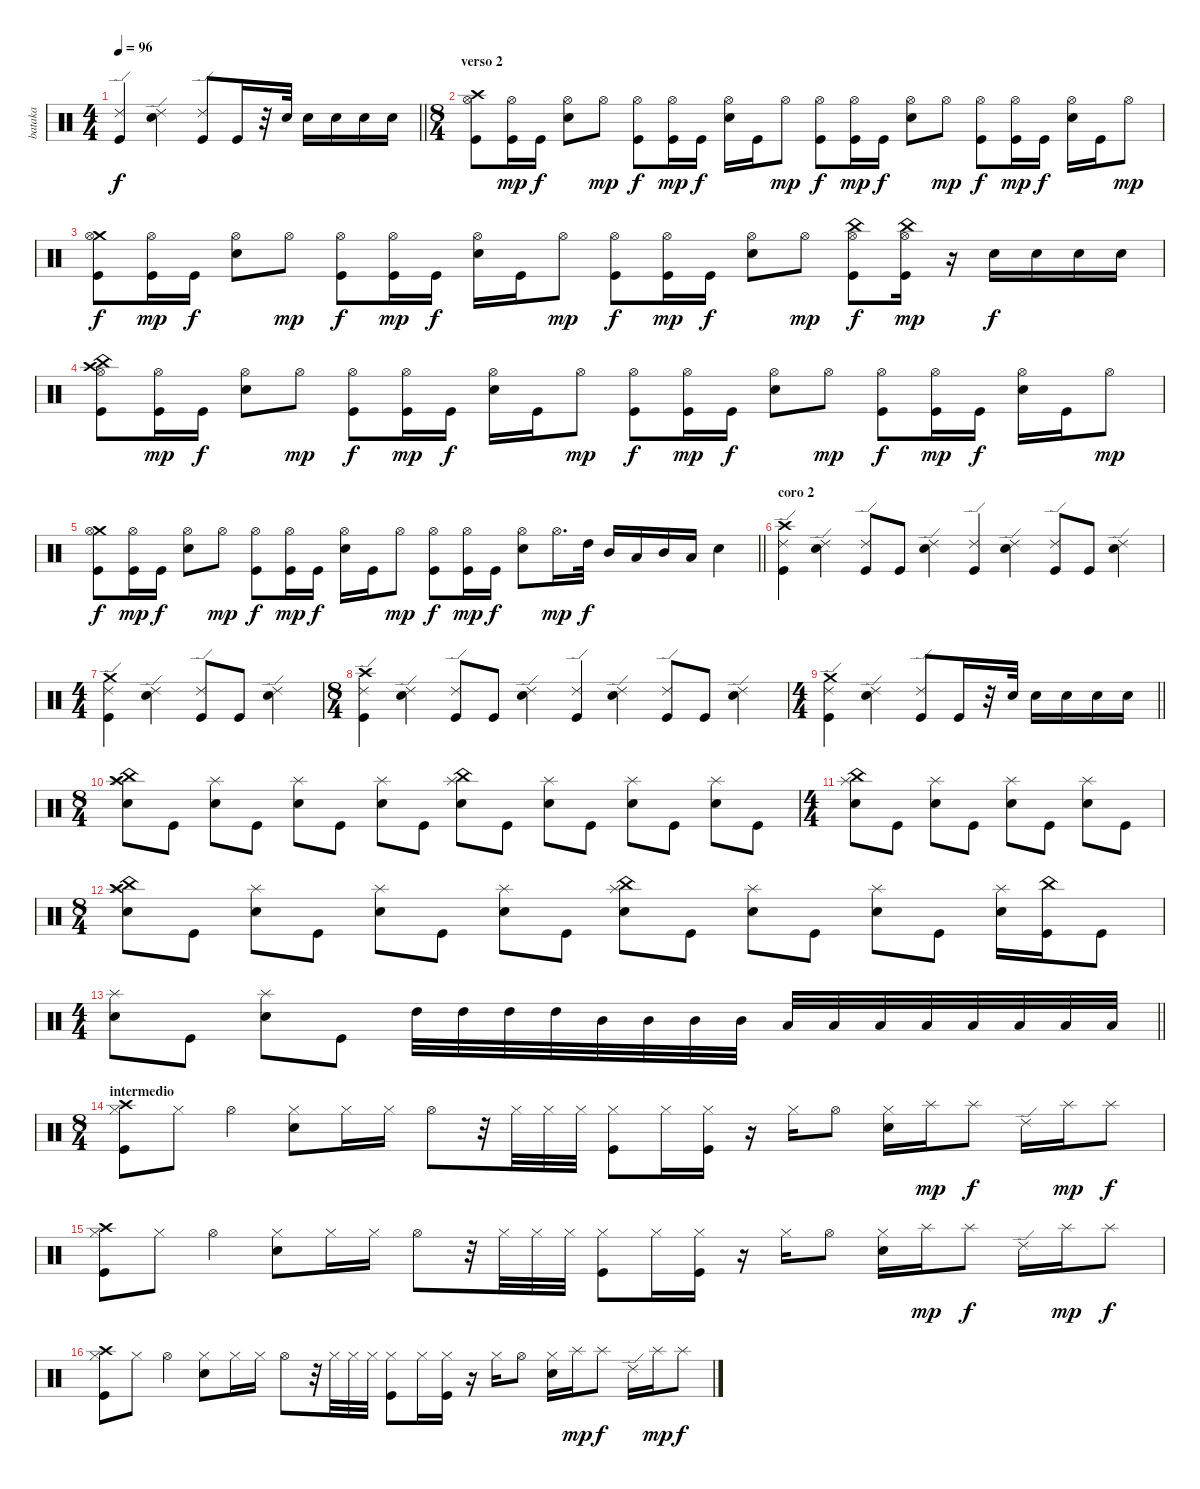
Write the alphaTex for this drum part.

\track ("bataka" "bataka") {instrument percussion}
\staff {score}
\articulation defaults
\ts (4 4)
\tempo 96
\clef neutral
\barLineRight lightlight
\ks c
("Ride (edge) 2" "Kick (hit)").4{dy f} ("Ride (edge) 2" "Snare (hit) 2").4 ("Ride (edge) 2" "Kick (hit)").8 "Kick (hit)".16 r.32 "Snare (hit) 2".32 "Snare (hit) 2".16 "Snare (hit) 2".16 "Snare (hit) 2".16 "Snare (hit) 2".16 |
\ts (8 4)
\section ("" "verso 2")
("Crash high (hit)" "Hi-Hat (open)" "Kick (hit)").8 ("Hi-Hat (open)" "Kick (hit)").16{dy mp} "Kick (hit)".16{dy f} ("Hi-Hat (open)" "Snare (hit) 2").8 "Hi-Hat (open)".8{dy mp} ("Hi-Hat (open)" "Kick (hit)").8{dy f} ("Hi-Hat (open)" "Kick (hit)").16{dy mp} "Kick (hit)".16{dy f} ("Hi-Hat (open)" "Snare (hit) 2").16 "Kick (hit)".16 "Hi-Hat (open)".8{dy mp} ("Hi-Hat (open)" "Kick (hit)").8{dy f} ("Hi-Hat (open)" "Kick (hit)").16{dy mp} "Kick (hit)".16{dy f} ("Hi-Hat (open)" "Snare (hit) 2").8 "Hi-Hat (open)".8{dy mp} ("Hi-Hat (open)" "Kick (hit)").8{dy f} ("Hi-Hat (open)" "Kick (hit)").16{dy mp} "Kick (hit)".16{dy f} ("Hi-Hat (open)" "Snare (hit) 2").16 "Kick (hit)".16 "Hi-Hat (open)".8{dy mp} |
("Crash medium (hit)" "Hi-Hat (open)" "Kick (hit)").8{dy f} ("Hi-Hat (open)" "Kick (hit)").16{dy mp} "Kick (hit)".16{dy f} ("Hi-Hat (open)" "Snare (hit) 2").8 "Hi-Hat (open)".8{dy mp} ("Hi-Hat (open)" "Kick (hit)").8{dy f} ("Hi-Hat (open)" "Kick (hit)").16{dy mp} "Kick (hit)".16{dy f} ("Hi-Hat (open)" "Snare (hit) 2").16 "Kick (hit)".16 "Hi-Hat (open)".8{dy mp} ("Hi-Hat (open)" "Kick (hit)").8{dy f} ("Hi-Hat (open)" "Kick (hit)").16{dy mp} "Kick (hit)".16{dy f} ("Hi-Hat (open)" "Snare (hit) 2").8 "Hi-Hat (open)".8{dy mp} ("China (hit)" "Hi-Hat (open)" "Kick (hit)").8{dy f} ("China (hit)" "Hi-Hat (open)" "Kick (hit)").16{dy mp} r.16 "Snare (hit) 2".16{dy f} "Snare (hit) 2".16 "Snare (hit) 2".16 "Snare (hit) 2".16 |
("Crash high (hit)" "China (hit)" "Hi-Hat (open)" "Kick (hit)").8 ("Hi-Hat (open)" "Kick (hit)").16{dy mp} "Kick (hit)".16{dy f} ("Hi-Hat (open)" "Snare (hit) 2").8 "Hi-Hat (open)".8{dy mp} ("Hi-Hat (open)" "Kick (hit)").8{dy f} ("Hi-Hat (open)" "Kick (hit)").16{dy mp} "Kick (hit)".16{dy f} ("Hi-Hat (open)" "Snare (hit) 2").16 "Kick (hit)".16 "Hi-Hat (open)".8{dy mp} ("Hi-Hat (open)" "Kick (hit)").8{dy f} ("Hi-Hat (open)" "Kick (hit)").16{dy mp} "Kick (hit)".16{dy f} ("Hi-Hat (open)" "Snare (hit) 2").8 "Hi-Hat (open)".8{dy mp} ("Hi-Hat (open)" "Kick (hit)").8{dy f} ("Hi-Hat (open)" "Kick (hit)").16{dy mp} "Kick (hit)".16{dy f} ("Hi-Hat (open)" "Snare (hit) 2").16 "Kick (hit)".16 "Hi-Hat (open)".8{dy mp} |
\barLineRight lightlight
("Crash medium (hit)" "Hi-Hat (open)" "Kick (hit)").8{dy f} ("Hi-Hat (open)" "Kick (hit)").16{dy mp} "Kick (hit)".16{dy f} ("Hi-Hat (open)" "Snare (hit) 2").8 "Hi-Hat (open)".8{dy mp} ("Hi-Hat (open)" "Kick (hit)").8{dy f} ("Hi-Hat (open)" "Kick (hit)").16{dy mp} "Kick (hit)".16{dy f} ("Hi-Hat (open)" "Snare (hit) 2").16 "Kick (hit)".16 "Hi-Hat (open)".8{dy mp} ("Hi-Hat (open)" "Kick (hit)").8{dy f} ("Hi-Hat (open)" "Kick (hit)").16{dy mp} "Kick (hit)".16{dy f} ("Hi-Hat (open)" "Snare (hit) 2").8 "Hi-Hat (open)".16{d dy mp} "High Tom (hit)".32{dy f} "Mid Tom (hit)".16 "Low Tom (hit)".16 "Mid Tom (hit)".16 "Low Tom (hit)".16 "Snare (hit) 2".4 |
\section ("" "coro 2")
("Crash high (hit)" "Ride (edge) 2" "Kick (hit)").4 ("Ride (edge) 2" "Snare (hit) 2").4 ("Ride (edge) 2" "Kick (hit)").8 "Kick (hit)".8 ("Ride (edge) 2" "Snare (hit) 2").4 ("Ride (edge) 2" "Kick (hit)").4 ("Ride (edge) 2" "Snare (hit) 2").4 ("Ride (edge) 2" "Kick (hit)").8 "Kick (hit)".8 ("Ride (edge) 2" "Snare (hit) 2").4 |
\ts (4 4)
("Crash medium (hit)" "Ride (edge) 2" "Kick (hit)").4 ("Ride (edge) 2" "Snare (hit) 2").4 ("Ride (edge) 2" "Kick (hit)").8 "Kick (hit)".8 ("Ride (edge) 2" "Snare (hit) 2").4 |
\ts (8 4)
("Crash high (hit)" "Ride (edge) 2" "Kick (hit)").4 ("Ride (edge) 2" "Snare (hit) 2").4 ("Ride (edge) 2" "Kick (hit)").8 "Kick (hit)".8 ("Ride (edge) 2" "Snare (hit) 2").4 ("Ride (edge) 2" "Kick (hit)").4 ("Ride (edge) 2" "Snare (hit) 2").4 ("Ride (edge) 2" "Kick (hit)").8 "Kick (hit)".8 ("Ride (edge) 2" "Snare (hit) 2").4 |
\ts (4 4)
\barLineRight lightlight
("Crash medium (hit)" "Ride (edge) 2" "Kick (hit)").4 ("Ride (edge) 2" "Snare (hit) 2").4 ("Ride (edge) 2" "Kick (hit)").8 "Kick (hit)".16 r.32 "Snare (hit) 2".32 "Snare (hit) 2".16 "Snare (hit) 2".16 "Snare (hit) 2".16 "Snare (hit) 2".16 |
\ts (8 4)
("Crash high (hit)" "China (hit)" "Splash (hit)" "Snare (hit) 2").8 "Kick (hit)".8 ("Splash (hit)" "Snare (hit) 2").8 "Kick (hit)".8 ("Splash (hit)" "Snare (hit) 2").8 "Kick (hit)".8 ("Splash (hit)" "Snare (hit) 2").8 "Kick (hit)".8 ("China (hit)" "Splash (hit)" "Snare (hit) 2").8 "Kick (hit)".8 ("Splash (hit)" "Snare (hit) 2").8 "Kick (hit)".8 ("Splash (hit)" "Snare (hit) 2").8 "Kick (hit)".8 ("Splash (hit)" "Snare (hit) 2").8 "Kick (hit)".8 |
\ts (4 4)
("China (hit)" "Splash (hit)" "Snare (hit) 2").8 "Kick (hit)".8 ("Splash (hit)" "Snare (hit) 2").8 "Kick (hit)".8 ("Splash (hit)" "Snare (hit) 2").8 "Kick (hit)".8 ("Splash (hit)" "Snare (hit) 2").8 "Kick (hit)".8 |
\ts (8 4)
("Crash high (hit)" "China (hit)" "Splash (hit)" "Snare (hit) 2").8 "Kick (hit)".8 ("Splash (hit)" "Snare (hit) 2").8 "Kick (hit)".8 ("Splash (hit)" "Snare (hit) 2").8 "Kick (hit)".8 ("Splash (hit)" "Snare (hit) 2").8 "Kick (hit)".8 ("China (hit)" "Splash (hit)" "Snare (hit) 2").8 "Kick (hit)".8 ("Splash (hit)" "Snare (hit) 2").8 "Kick (hit)".8 ("Splash (hit)" "Snare (hit) 2").8 "Kick (hit)".8 ("Splash (hit)" "Snare (hit) 2").16 ("China (hit)" "Kick (hit)").16 "Kick (hit)".8 |
\ts (4 4)
\barLineRight lightlight
("Splash (hit)" "Snare (hit) 2").8 "Kick (hit)".8 ("Splash (hit)" "Snare (hit) 2").8 "Kick (hit)".8 "High Tom (hit)".32 "High Tom (hit)".32 "High Tom (hit)".32 "High Tom (hit)".32 "Mid Tom (hit)".32 "Mid Tom (hit)".32 "Mid Tom (hit)".32 "Mid Tom (hit)".32 "Low Tom (hit)".32 "Low Tom (hit)".32 "Low Tom (hit)".32 "Low Tom (hit)".32 "Low Tom (hit)".32 "Low Tom (hit)".32 "Low Tom (hit)".32 "Low Tom (hit)".32 |
\ts (8 4)
\section ("" "intermedio")
("Crash high (hit)" "Hi-Hat (closed)" "Kick (hit)").8 "Hi-Hat (closed)".8 "Hi-Hat (open)".4 ("Hi-Hat (closed)" "Snare (hit) 2").8 "Hi-Hat (closed)".16 "Hi-Hat (closed)".16 "Hi-Hat (open)".8 r.32 "Hi-Hat (closed)".32 "Hi-Hat (closed)".32 "Hi-Hat (closed)".32 ("Hi-Hat (closed)" "Kick (hit)").8 "Hi-Hat (closed)".16 ("Hi-Hat (closed)" "Kick (hit)").16 r.16 "Hi-Hat (closed)".16 "Hi-Hat (open)".8 ("Hi-Hat (closed)" "Snare (hit) 2").16 "Splash (hit)".16{dy mp} "Splash (hit)".8{dy f} "Ride (edge) 2".16 "Splash (hit)".16{dy mp} "Splash (hit)".8{dy f} |
("Crash high (hit)" "Hi-Hat (closed)" "Kick (hit)").8 "Hi-Hat (closed)".8 "Hi-Hat (open)".4 ("Hi-Hat (closed)" "Snare (hit) 2").8 "Hi-Hat (closed)".16 "Hi-Hat (closed)".16 "Hi-Hat (open)".8 r.32 "Hi-Hat (closed)".32 "Hi-Hat (closed)".32 "Hi-Hat (closed)".32 ("Hi-Hat (closed)" "Kick (hit)").8 "Hi-Hat (closed)".16 ("Hi-Hat (closed)" "Kick (hit)").16 r.16 "Hi-Hat (closed)".16 "Hi-Hat (open)".8 ("Hi-Hat (closed)" "Snare (hit) 2").16 "Splash (hit)".16{dy mp} "Splash (hit)".8{dy f} "Ride (edge) 2".16 "Splash (hit)".16{dy mp} "Splash (hit)".8{dy f} |
("Crash high (hit)" "Hi-Hat (closed)" "Kick (hit)").8 "Hi-Hat (closed)".8 "Hi-Hat (open)".4 ("Hi-Hat (closed)" "Snare (hit) 2").8 "Hi-Hat (closed)".16 "Hi-Hat (closed)".16 "Hi-Hat (open)".8 r.32 "Hi-Hat (closed)".32 "Hi-Hat (closed)".32 "Hi-Hat (closed)".32 ("Hi-Hat (closed)" "Kick (hit)").8 "Hi-Hat (closed)".16 ("Hi-Hat (closed)" "Kick (hit)").16 r.16 "Hi-Hat (closed)".16 "Hi-Hat (open)".8 ("Hi-Hat (closed)" "Snare (hit) 2").16 "Splash (hit)".16{dy mp} "Splash (hit)".8{dy f} "Ride (edge) 2".16 "Splash (hit)".16{dy mp} "Splash (hit)".8{dy f}
